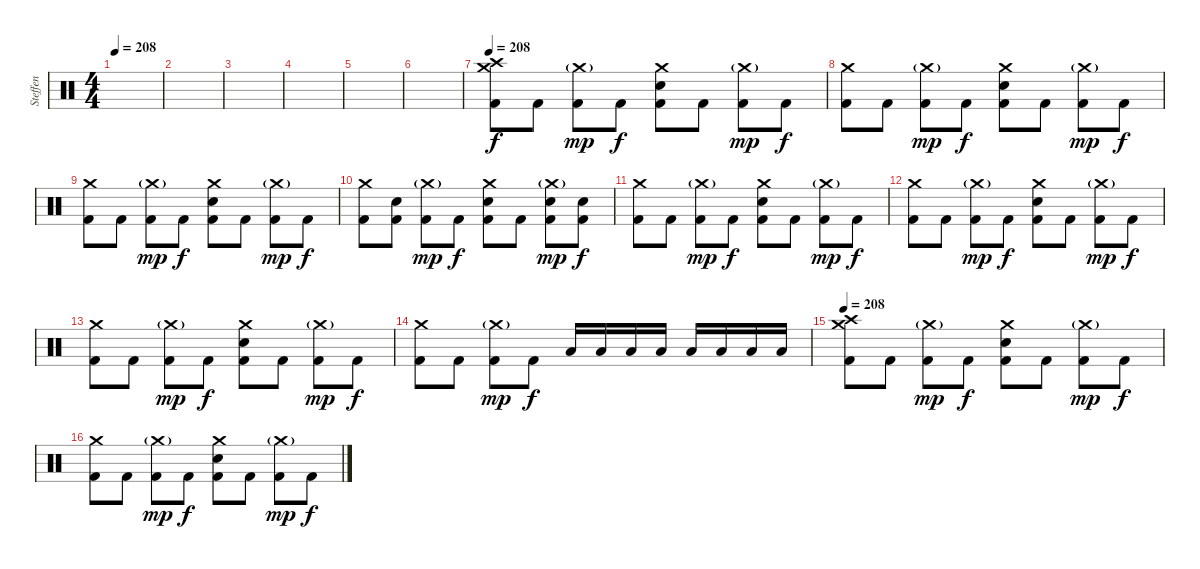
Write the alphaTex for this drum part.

\track ("Steffen" "Steffen") {instrument percussion}
\staff {score}
\articulation defaults
\ts (4 4)
\tempo 208
\tempo 155
\tempo 208
\clef neutral
\ks c
|
|
|
|
|
|
\tempo 208
("Crash medium (hit)" "Crash high (hit)" "Kick (hit) 2").8 "Kick (hit) 2".8 ("Crash medium (hit)"{g} "Kick (hit) 2").8{dy mp} "Kick (hit) 2".8{dy f} ("Crash medium (hit)" "Snare (hit) 2" "Kick (hit) 2").8 "Kick (hit) 2".8 ("Crash medium (hit)"{g} "Kick (hit) 2").8{dy mp} "Kick (hit) 2".8{dy f} |
("Crash medium (hit)" "Kick (hit) 2").8 "Kick (hit) 2".8 ("Crash medium (hit)"{g} "Kick (hit) 2").8{dy mp} "Kick (hit) 2".8{dy f} ("Crash medium (hit)" "Snare (hit) 2" "Kick (hit) 2").8 "Kick (hit) 2".8 ("Crash medium (hit)"{g} "Kick (hit) 2").8{dy mp} "Kick (hit) 2".8{dy f} |
("Crash medium (hit)" "Kick (hit) 2").8 "Kick (hit) 2".8 ("Crash medium (hit)"{g} "Kick (hit) 2").8{dy mp} "Kick (hit) 2".8{dy f} ("Crash medium (hit)" "Snare (hit) 2" "Kick (hit) 2").8 "Kick (hit) 2".8 ("Crash medium (hit)"{g} "Kick (hit) 2").8{dy mp} "Kick (hit) 2".8{dy f} |
("Crash medium (hit)" "Kick (hit) 2").8 ("Snare (hit) 2" "Kick (hit) 2").8 ("Crash medium (hit)"{g} "Kick (hit) 2").8{dy mp} "Kick (hit) 2".8{dy f} ("Crash medium (hit)" "Snare (hit) 2" "Kick (hit) 2").8 "Kick (hit) 2".8 ("Crash medium (hit)"{g} "Snare (hit) 2" "Kick (hit) 2").8{dy mp} ("Snare (hit) 2" "Kick (hit) 2").8{dy f} |
("Crash medium (hit)" "Kick (hit) 2").8 "Kick (hit) 2".8 ("Crash medium (hit)"{g} "Kick (hit) 2").8{dy mp} "Kick (hit) 2".8{dy f} ("Crash medium (hit)" "Snare (hit) 2" "Kick (hit) 2").8 "Kick (hit) 2".8 ("Crash medium (hit)"{g} "Kick (hit) 2").8{dy mp} "Kick (hit) 2".8{dy f} |
("Crash medium (hit)" "Kick (hit) 2").8 "Kick (hit) 2".8 ("Crash medium (hit)"{g} "Kick (hit) 2").8{dy mp} "Kick (hit) 2".8{dy f} ("Crash medium (hit)" "Snare (hit) 2" "Kick (hit) 2").8 "Kick (hit) 2".8 ("Crash medium (hit)"{g} "Kick (hit) 2").8{dy mp} "Kick (hit) 2".8{dy f} |
("Crash medium (hit)" "Kick (hit) 2").8 "Kick (hit) 2".8 ("Crash medium (hit)"{g} "Kick (hit) 2").8{dy mp} "Kick (hit) 2".8{dy f} ("Crash medium (hit)" "Snare (hit) 2" "Kick (hit) 2").8 "Kick (hit) 2".8 ("Crash medium (hit)"{g} "Kick (hit) 2").8{dy mp} "Kick (hit) 2".8{dy f} |
("Crash medium (hit)" "Kick (hit) 2").8 "Kick (hit) 2".8 ("Crash medium (hit)"{g} "Kick (hit) 2").8{dy mp} "Kick (hit) 2".8{dy f} "Low Tom (hit)".16 "Low Tom (hit)".16 "Low Tom (hit)".16 "Low Tom (hit)".16 "Low Floor Tom (hit)".16 "Low Floor Tom (hit)".16 "Low Floor Tom (hit)".16 "Low Floor Tom (hit)".16 |
\tempo 208
("Crash medium (hit)" "Crash high (hit)" "Kick (hit) 2").8 "Kick (hit) 2".8 ("Crash medium (hit)"{g} "Kick (hit) 2").8{dy mp} "Kick (hit) 2".8{dy f} ("Crash medium (hit)" "Snare (hit) 2" "Kick (hit) 2").8 "Kick (hit) 2".8 ("Crash medium (hit)"{g} "Kick (hit) 2").8{dy mp} "Kick (hit) 2".8{dy f} |
("Crash medium (hit)" "Kick (hit) 2").8 "Kick (hit) 2".8 ("Crash medium (hit)"{g} "Kick (hit) 2").8{dy mp} "Kick (hit) 2".8{dy f} ("Crash medium (hit)" "Snare (hit) 2" "Kick (hit) 2").8 "Kick (hit) 2".8 ("Crash medium (hit)"{g} "Kick (hit) 2").8{dy mp} "Kick (hit) 2".8{dy f}
